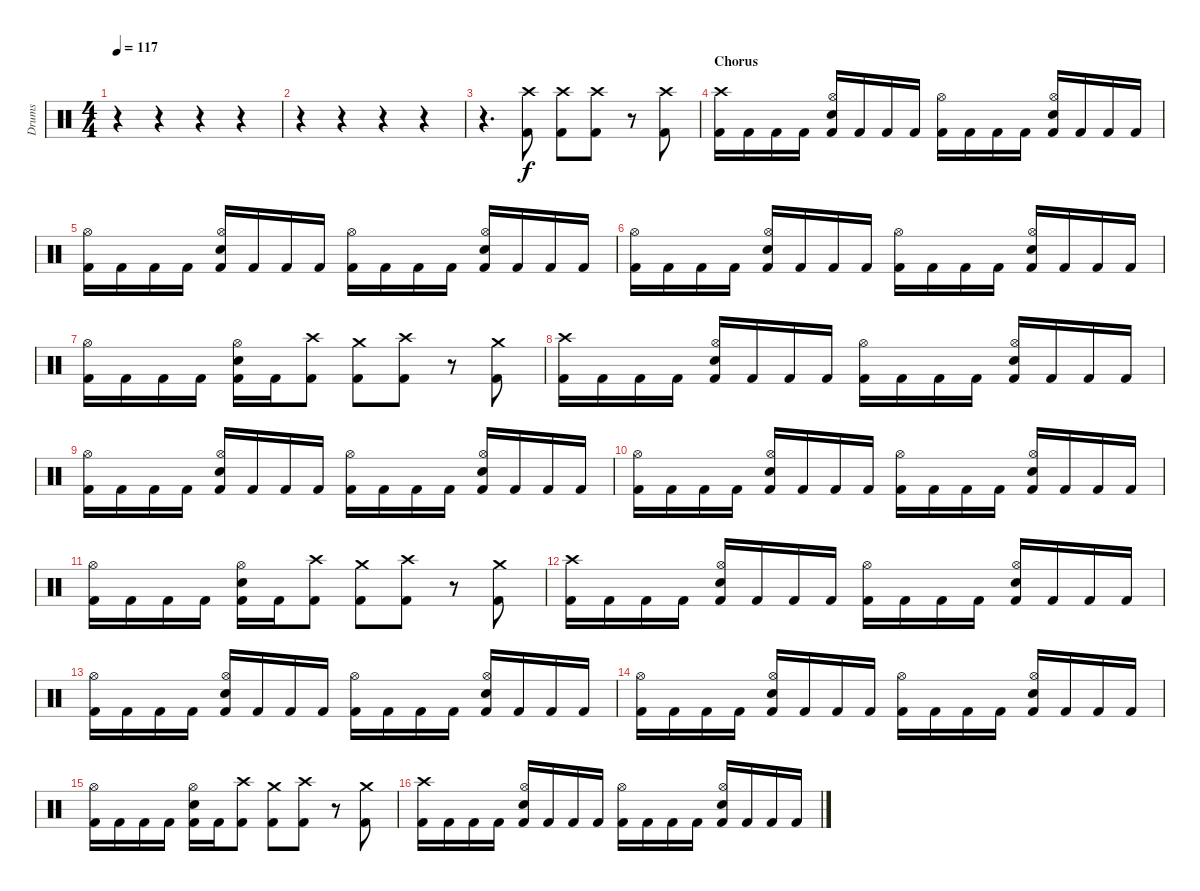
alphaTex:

\track ("Drums" "Drums") {instrument percussion}
\staff {score}
\articulation defaults
\ts (4 4)
\tempo 117
\clef neutral
\ks c
r.4{dy f} r.4 r.4 r.4 |
r.4 r.4 r.4 r.4 |
r.4{d} ("Crash high (hit)" "Kick (hit) 2").8 ("Crash high (hit)" "Kick (hit) 2").8 ("Crash high (hit)" "Kick (hit) 2").8 r.8 ("Crash high (hit)" "Kick (hit) 2").8 |
\section ("" "Chorus")
("Crash high (hit)" "Kick (hit) 2").16 "Kick (hit) 2".16 "Kick (hit) 2".16 "Kick (hit) 2".16 ("Hi-Hat (open)" "Snare (hit) 2" "Kick (hit) 2").16 "Kick (hit) 2".16 "Kick (hit) 2".16 "Kick (hit) 2".16 ("Hi-Hat (open)" "Kick (hit) 2").16 "Kick (hit) 2".16 "Kick (hit) 2".16 "Kick (hit) 2".16 ("Hi-Hat (open)" "Snare (hit) 2" "Kick (hit) 2").16 "Kick (hit) 2".16 "Kick (hit) 2".16 "Kick (hit) 2".16 |
("Hi-Hat (open)" "Kick (hit) 2").16 "Kick (hit) 2".16 "Kick (hit) 2".16 "Kick (hit) 2".16 ("Hi-Hat (open)" "Snare (hit) 2" "Kick (hit) 2").16 "Kick (hit) 2".16 "Kick (hit) 2".16 "Kick (hit) 2".16 ("Hi-Hat (open)" "Kick (hit) 2").16 "Kick (hit) 2".16 "Kick (hit) 2".16 "Kick (hit) 2".16 ("Hi-Hat (open)" "Snare (hit) 2" "Kick (hit) 2").16 "Kick (hit) 2".16 "Kick (hit) 2".16 "Kick (hit) 2".16 |
("Hi-Hat (open)" "Kick (hit) 2").16 "Kick (hit) 2".16 "Kick (hit) 2".16 "Kick (hit) 2".16 ("Hi-Hat (open)" "Snare (hit) 2" "Kick (hit) 2").16 "Kick (hit) 2".16 "Kick (hit) 2".16 "Kick (hit) 2".16 ("Hi-Hat (open)" "Kick (hit) 2").16 "Kick (hit) 2".16 "Kick (hit) 2".16 "Kick (hit) 2".16 ("Hi-Hat (open)" "Snare (hit) 2" "Kick (hit) 2").16 "Kick (hit) 2".16 "Kick (hit) 2".16 "Kick (hit) 2".16 |
("Hi-Hat (open)" "Kick (hit) 2").16 "Kick (hit) 2".16 "Kick (hit) 2".16 "Kick (hit) 2".16 ("Hi-Hat (open)" "Snare (hit) 2" "Kick (hit) 2").16 "Kick (hit) 2".16 ("Crash high (hit)" "Kick (hit) 2").8 ("Crash medium (hit)" "Kick (hit) 2").8 ("Crash high (hit)" "Kick (hit) 2").8 r.8 ("Crash medium (hit)" "Kick (hit) 2").8 |
("Crash high (hit)" "Kick (hit) 2").16 "Kick (hit) 2".16 "Kick (hit) 2".16 "Kick (hit) 2".16 ("Hi-Hat (open)" "Snare (hit) 2" "Kick (hit) 2").16 "Kick (hit) 2".16 "Kick (hit) 2".16 "Kick (hit) 2".16 ("Hi-Hat (open)" "Kick (hit) 2").16 "Kick (hit) 2".16 "Kick (hit) 2".16 "Kick (hit) 2".16 ("Hi-Hat (open)" "Snare (hit) 2" "Kick (hit) 2").16 "Kick (hit) 2".16 "Kick (hit) 2".16 "Kick (hit) 2".16 |
("Hi-Hat (open)" "Kick (hit) 2").16 "Kick (hit) 2".16 "Kick (hit) 2".16 "Kick (hit) 2".16 ("Hi-Hat (open)" "Snare (hit) 2" "Kick (hit) 2").16 "Kick (hit) 2".16 "Kick (hit) 2".16 "Kick (hit) 2".16 ("Hi-Hat (open)" "Kick (hit) 2").16 "Kick (hit) 2".16 "Kick (hit) 2".16 "Kick (hit) 2".16 ("Hi-Hat (open)" "Snare (hit) 2" "Kick (hit) 2").16 "Kick (hit) 2".16 "Kick (hit) 2".16 "Kick (hit) 2".16 |
("Hi-Hat (open)" "Kick (hit) 2").16 "Kick (hit) 2".16 "Kick (hit) 2".16 "Kick (hit) 2".16 ("Hi-Hat (open)" "Snare (hit) 2" "Kick (hit) 2").16 "Kick (hit) 2".16 "Kick (hit) 2".16 "Kick (hit) 2".16 ("Hi-Hat (open)" "Kick (hit) 2").16 "Kick (hit) 2".16 "Kick (hit) 2".16 "Kick (hit) 2".16 ("Hi-Hat (open)" "Snare (hit) 2" "Kick (hit) 2").16 "Kick (hit) 2".16 "Kick (hit) 2".16 "Kick (hit) 2".16 |
("Hi-Hat (open)" "Kick (hit) 2").16 "Kick (hit) 2".16 "Kick (hit) 2".16 "Kick (hit) 2".16 ("Hi-Hat (open)" "Snare (hit) 2" "Kick (hit) 2").16 "Kick (hit) 2".16 ("Crash high (hit)" "Kick (hit) 2").8 ("Crash medium (hit)" "Kick (hit) 2").8 ("Crash high (hit)" "Kick (hit) 2").8 r.8 ("Crash medium (hit)" "Kick (hit) 2").8 |
("Crash high (hit)" "Kick (hit) 2").16 "Kick (hit) 2".16 "Kick (hit) 2".16 "Kick (hit) 2".16 ("Hi-Hat (open)" "Snare (hit) 2" "Kick (hit) 2").16 "Kick (hit) 2".16 "Kick (hit) 2".16 "Kick (hit) 2".16 ("Hi-Hat (open)" "Kick (hit) 2").16 "Kick (hit) 2".16 "Kick (hit) 2".16 "Kick (hit) 2".16 ("Hi-Hat (open)" "Snare (hit) 2" "Kick (hit) 2").16 "Kick (hit) 2".16 "Kick (hit) 2".16 "Kick (hit) 2".16 |
("Hi-Hat (open)" "Kick (hit) 2").16 "Kick (hit) 2".16 "Kick (hit) 2".16 "Kick (hit) 2".16 ("Hi-Hat (open)" "Snare (hit) 2" "Kick (hit) 2").16 "Kick (hit) 2".16 "Kick (hit) 2".16 "Kick (hit) 2".16 ("Hi-Hat (open)" "Kick (hit) 2").16 "Kick (hit) 2".16 "Kick (hit) 2".16 "Kick (hit) 2".16 ("Hi-Hat (open)" "Snare (hit) 2" "Kick (hit) 2").16 "Kick (hit) 2".16 "Kick (hit) 2".16 "Kick (hit) 2".16 |
("Hi-Hat (open)" "Kick (hit) 2").16 "Kick (hit) 2".16 "Kick (hit) 2".16 "Kick (hit) 2".16 ("Hi-Hat (open)" "Snare (hit) 2" "Kick (hit) 2").16 "Kick (hit) 2".16 "Kick (hit) 2".16 "Kick (hit) 2".16 ("Hi-Hat (open)" "Kick (hit) 2").16 "Kick (hit) 2".16 "Kick (hit) 2".16 "Kick (hit) 2".16 ("Hi-Hat (open)" "Snare (hit) 2" "Kick (hit) 2").16 "Kick (hit) 2".16 "Kick (hit) 2".16 "Kick (hit) 2".16 |
("Hi-Hat (open)" "Kick (hit) 2").16 "Kick (hit) 2".16 "Kick (hit) 2".16 "Kick (hit) 2".16 ("Hi-Hat (open)" "Snare (hit) 2" "Kick (hit) 2").16 "Kick (hit) 2".16 ("Crash high (hit)" "Kick (hit) 2").8 ("Crash medium (hit)" "Kick (hit) 2").8 ("Crash high (hit)" "Kick (hit) 2").8 r.8 ("Crash medium (hit)" "Kick (hit) 2").8 |
("Crash high (hit)" "Kick (hit) 2").16 "Kick (hit) 2".16 "Kick (hit) 2".16 "Kick (hit) 2".16 ("Hi-Hat (open)" "Snare (hit) 2" "Kick (hit) 2").16 "Kick (hit) 2".16 "Kick (hit) 2".16 "Kick (hit) 2".16 ("Hi-Hat (open)" "Kick (hit) 2").16 "Kick (hit) 2".16 "Kick (hit) 2".16 "Kick (hit) 2".16 ("Hi-Hat (open)" "Snare (hit) 2" "Kick (hit) 2").16 "Kick (hit) 2".16 "Kick (hit) 2".16 "Kick (hit) 2".16
